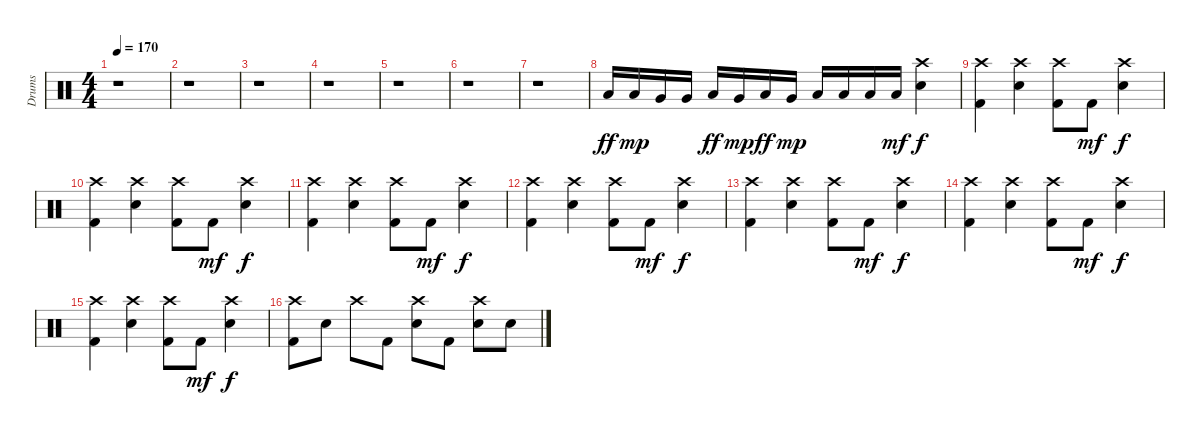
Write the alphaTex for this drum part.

\track ("Drums" "Drums") {instrument percussion}
\staff {score}
\articulation defaults
\ts (4 4)
\tempo 170
\clef neutral
\ks c
r.1{dy ff} |
r.1 |
r.1 |
r.1 |
r.1 |
r.1 |
r.1 |
"Low Tom (hit)".16 "Low Tom (hit)".16{dy mp} "Very Low Tom (hit)".16 "Very Low Tom (hit)".16 "Low Tom (hit)".16{dy ff} "Very Low Tom (hit)".16{dy mp} "Low Tom (hit)".16{dy ff} "Very Low Tom (hit)".16{dy mp} "Low Tom (hit)".16 "Low Tom (hit)".16 "Low Tom (hit)".16 "Low Tom (hit)".16{dy mf} ("Crash high (hit)" "Snare (hit) 2").4{dy f} |
("Crash high (hit)" "Kick (hit) 2").4 ("Crash high (hit)" "Snare (hit) 2").4 ("Crash high (hit)" "Kick (hit) 2").8 "Kick (hit) 2".8{dy mf} ("Crash high (hit)" "Snare (hit) 2").4{dy f} |
("Crash high (hit)" "Kick (hit) 2").4 ("Crash high (hit)" "Snare (hit) 2").4 ("Crash high (hit)" "Kick (hit) 2").8 "Kick (hit) 2".8{dy mf} ("Crash high (hit)" "Snare (hit) 2").4{dy f} |
("Crash high (hit)" "Kick (hit) 2").4 ("Crash high (hit)" "Snare (hit) 2").4 ("Crash high (hit)" "Kick (hit) 2").8 "Kick (hit) 2".8{dy mf} ("Crash high (hit)" "Snare (hit) 2").4{dy f} |
("Crash high (hit)" "Kick (hit) 2").4 ("Crash high (hit)" "Snare (hit) 2").4 ("Crash high (hit)" "Kick (hit) 2").8 "Kick (hit) 2".8{dy mf} ("Crash high (hit)" "Snare (hit) 2").4{dy f} |
("Crash high (hit)" "Kick (hit) 2").4 ("Crash high (hit)" "Snare (hit) 2").4 ("Crash high (hit)" "Kick (hit) 2").8 "Kick (hit) 2".8{dy mf} ("Crash high (hit)" "Snare (hit) 2").4{dy f} |
("Crash high (hit)" "Kick (hit) 2").4 ("Crash high (hit)" "Snare (hit) 2").4 ("Crash high (hit)" "Kick (hit) 2").8 "Kick (hit) 2".8{dy mf} ("Crash high (hit)" "Snare (hit) 2").4{dy f} |
("Crash high (hit)" "Kick (hit) 2").4 ("Crash high (hit)" "Snare (hit) 2").4 ("Crash high (hit)" "Kick (hit) 2").8 "Kick (hit) 2".8{dy mf} ("Crash high (hit)" "Snare (hit) 2").4{dy f} |
("Crash high (hit)" "Kick (hit) 2").8 "Snare (hit) 2".8 "Crash high (hit)".8 "Kick (hit) 2".8 ("Crash high (hit)" "Snare (hit) 2").8 "Kick (hit) 2".8 ("Crash high (hit)" "Snare (hit) 2").8 "Snare (hit) 2".8
